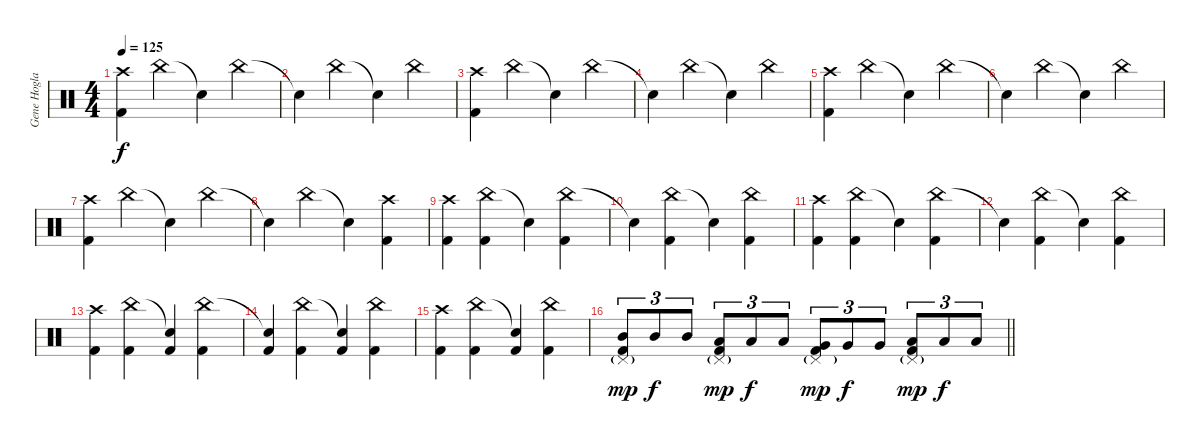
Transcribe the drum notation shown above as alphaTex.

\track ("Gene Hoglan" "Gene Hogla") {instrument percussion}
\staff {score}
\articulation defaults
\ts (4 4)
\tempo 125
\clef neutral
\ks c
("Crash high (hit)" "Kick (hit) 2").4{dy f} "China (hit)".4 "Snare (hit)"{t}.4 "China (hit)".4 |
"Snare (hit)"{t}.4 "China (hit)".4 "Snare (hit)"{t}.4 "China (hit)".4 |
("Crash high (hit)" "Kick (hit) 2").4 "China (hit)".4 "Snare (hit)"{t}.4 "China (hit)".4 |
"Snare (hit)"{t}.4 "China (hit)".4 "Snare (hit)"{t}.4 "China (hit)".4 |
("Crash high (hit)" "Kick (hit) 2").4 "China (hit)".4 "Snare (hit)"{t}.4 "China (hit)".4 |
"Snare (hit)"{t}.4 "China (hit)".4 "Snare (hit)"{t}.4 "China (hit)".4 |
("Crash high (hit)" "Kick (hit) 2").4 "China (hit)".4 "Snare (hit)"{t}.4 "China (hit)".4 |
"Snare (hit)"{t}.4 "China (hit)".4 "Snare (hit)"{t}.4 ("Crash high (hit)" "Kick (hit) 2").4 |
("Crash high (hit)" "Kick (hit) 2").4 ("China (hit)" "Kick (hit) 2").4 "Snare (hit)"{t}.4 ("China (hit)" "Kick (hit) 2").4 |
"Snare (hit)"{t}.4 ("China (hit)" "Kick (hit) 2").4 "Snare (hit)"{t}.4 ("China (hit)" "Kick (hit) 2").4 |
("Crash high (hit)" "Kick (hit) 2").4 ("China (hit)" "Kick (hit) 2").4 "Snare (hit)"{t}.4 ("China (hit)" "Kick (hit) 2").4 |
"Snare (hit)"{t}.4 ("China (hit)" "Kick (hit) 2").4 "Snare (hit)"{t}.4 ("China (hit)" "Kick (hit) 2").4 |
("Crash high (hit)" "Kick (hit) 2").4 ("China (hit)" "Kick (hit) 2").4 ("Snare (hit)"{t} "Kick (hit) 2").4 ("China (hit)" "Kick (hit) 2").4 |
("Snare (hit)"{t} "Kick (hit) 2").4 ("China (hit)" "Kick (hit) 2").4 ("Snare (hit)"{t} "Kick (hit) 2").4 ("China (hit)" "Kick (hit) 2").4 |
("Crash high (hit)" "Kick (hit) 2").4 ("China (hit)" "Kick (hit) 2").4 ("Snare (hit)"{t} "Kick (hit) 2").4 ("China (hit)" "Kick (hit) 2").4 |
\barLineRight lightlight
("Pedal Hi-Hat (hit)"{g} "Mid Tom (hit)" "Kick (hit) 2").8{tu (3 2) dy mp} "Mid Tom (hit)".8{tu (3 2) dy f} "Mid Tom (hit)".8{tu (3 2)} ("Pedal Hi-Hat (hit)"{g} "Low Tom (hit)" "Kick (hit) 2").8{tu (3 2) dy mp} "Low Tom (hit)".8{tu (3 2) dy f} "Low Tom (hit)".8{tu (3 2)} ("Pedal Hi-Hat (hit)"{g} "Very Low Tom (hit)" "Kick (hit) 2").8{tu (3 2) dy mp} "Very Low Tom (hit)".8{tu (3 2) dy f} "Very Low Tom (hit)".8{tu (3 2)} ("Pedal Hi-Hat (hit)"{g} "Low Floor Tom (hit)" "Kick (hit) 2").8{tu (3 2) dy mp} "Low Floor Tom (hit)".8{tu (3 2) dy f} "Low Floor Tom (hit)".8{tu (3 2)}
